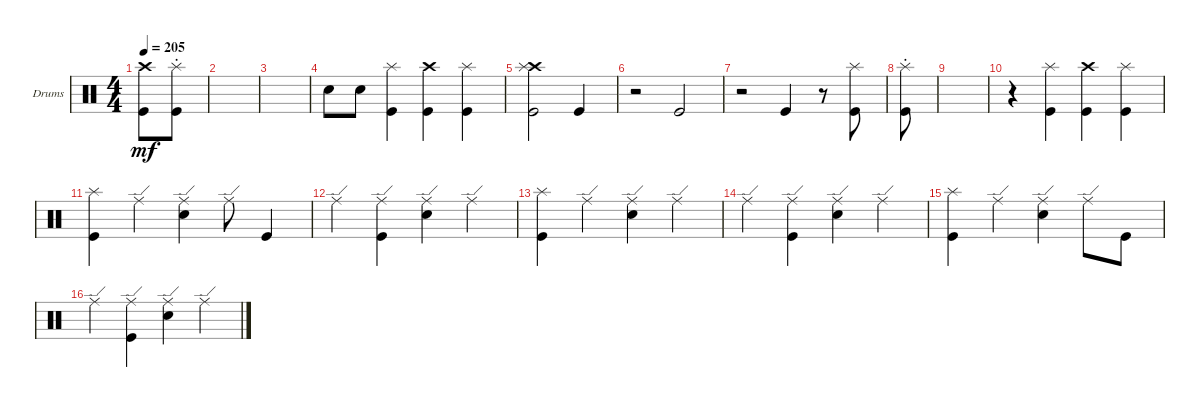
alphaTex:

\bracketExtendMode groupsimilarinstruments
\firstSystemTrackNameOrientation horizontal
\otherSystemsTrackNameOrientation horizontal
\track ("Drumkit" "Drums") {instrument percussion}
\staff {score}
\articulation defaults
\ts (4 4)
\tempo 205
\clef neutral
\ks c
("Kick (hit)" "Crash high (hit)").8{dy mf} ("Kick (hit)" "Splash (hit)"{st}).8 |
|
|
"Snare (hit) 2".8 "Snare (hit) 2".8 ("Kick (hit)" "Splash (hit)").4 ("Kick (hit)" "Crash high (hit)").4 ("Kick (hit)" "Splash (hit)").4 |
("Crash high (hit)" "Kick (hit)" "Splash (hit)").2 "Kick (hit)".4 |
r.2 "Kick (hit)".2 |
r.2 "Kick (hit)".4 r.8 ("Kick (hit)" "Splash (hit)").8 |
("Kick (hit)" "Splash (hit)"{st}).8 |
|
r.4 ("Kick (hit)" "Splash (hit)").4 ("Kick (hit)" "Crash high (hit)").4 ("Kick (hit)" "Splash (hit)").4 |
("Kick (hit)" "Splash (hit)").4 "Ride (edge)".4 ("Snare (hit) 2" "Ride (edge)").4 "Ride (edge)".8 "Kick (hit)".4 |
"Ride (edge)".4 ("Kick (hit)" "Ride (edge)").4 ("Snare (hit) 2" "Ride (edge)").4 "Ride (edge)".4 |
("Kick (hit)" "Splash (hit)").4 "Ride (edge)".4 ("Snare (hit) 2" "Ride (edge)").4 "Ride (edge)".4 |
"Ride (edge)".4 ("Kick (hit)" "Ride (edge)").4 ("Snare (hit) 2" "Ride (edge)").4 "Ride (edge)".4 |
("Kick (hit)" "Splash (hit)").4 "Ride (edge)".4 ("Ride (edge)" "Snare (hit) 2").4 "Ride (edge)".8 "Kick (hit)".8 |
"Ride (edge)".4 ("Kick (hit)" "Ride (edge)").4 ("Snare (hit) 2" "Ride (edge)").4 "Ride (edge)".4
